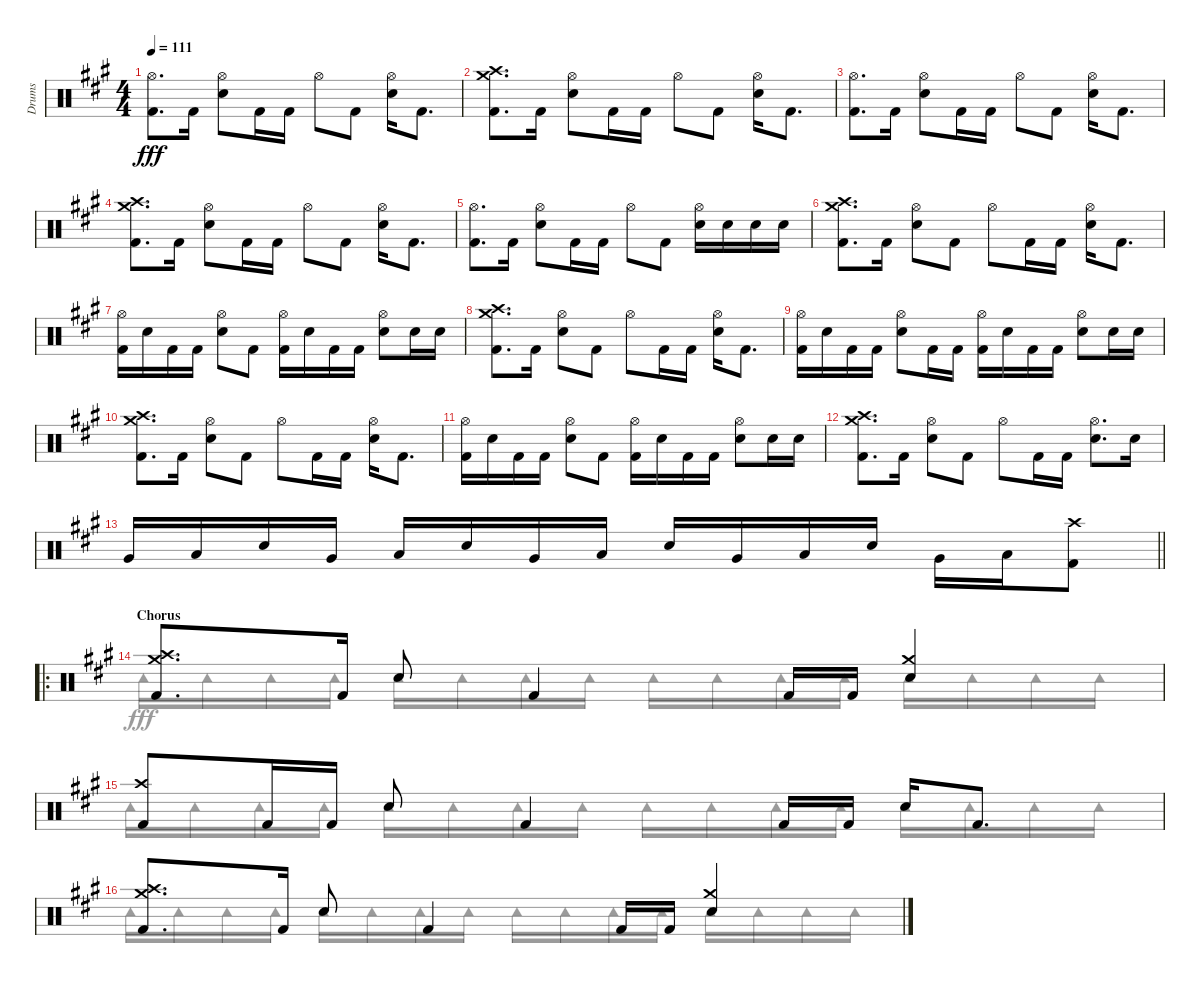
\track ("Drums" "Drums") {instrument percussion}
\staff {score}
\articulation defaults
\voice
\ts (4 4)
\tempo 111
\clef neutral
\ks a
("Hi-Hat (open)" "Kick (hit) 2").8{d dy fff} "Kick (hit) 2".16 ("Hi-Hat (open)" "Snare (hit) 2").8 "Kick (hit) 2".16 "Kick (hit) 2".16 "Hi-Hat (open)".8 "Kick (hit) 2".8 ("Hi-Hat (open)" "Snare (hit) 2").16 "Kick (hit) 2".8{d} |
("Crash medium (hit)" "Crash high (hit)" "Kick (hit) 2").8{d} "Kick (hit) 2".16 ("Hi-Hat (open)" "Snare (hit) 2").8 "Kick (hit) 2".16 "Kick (hit) 2".16 "Hi-Hat (open)".8 "Kick (hit) 2".8 ("Hi-Hat (open)" "Snare (hit) 2").16 "Kick (hit) 2".8{d} |
("Hi-Hat (open)" "Kick (hit) 2").8{d} "Kick (hit) 2".16 ("Hi-Hat (open)" "Snare (hit) 2").8 "Kick (hit) 2".16 "Kick (hit) 2".16 "Hi-Hat (open)".8 "Kick (hit) 2".8 ("Hi-Hat (open)" "Snare (hit) 2").16 "Kick (hit) 2".8{d} |
("Crash medium (hit)" "Crash high (hit)" "Kick (hit) 2").8{d} "Kick (hit) 2".16 ("Hi-Hat (open)" "Snare (hit) 2").8 "Kick (hit) 2".16 "Kick (hit) 2".16 "Hi-Hat (open)".8 "Kick (hit) 2".8 ("Hi-Hat (open)" "Snare (hit) 2").16 "Kick (hit) 2".8{d} |
("Hi-Hat (open)" "Kick (hit) 2").8{d} "Kick (hit) 2".16 ("Hi-Hat (open)" "Snare (hit) 2").8 "Kick (hit) 2".16 "Kick (hit) 2".16 "Hi-Hat (open)".8 "Kick (hit) 2".8 ("Hi-Hat (open)" "Snare (hit) 2").16 "Snare (hit) 2".16 "Snare (hit) 2".16 "Snare (hit) 2".16 |
("Crash medium (hit)" "Crash high (hit)" "Kick (hit) 2").8{d} "Kick (hit) 2".16 ("Hi-Hat (open)" "Snare (hit) 2").8 "Kick (hit) 2".8 "Hi-Hat (open)".8 "Kick (hit) 2".16 "Kick (hit) 2".16 ("Hi-Hat (open)" "Snare (hit) 2").16 "Kick (hit) 2".8{d} |
("Hi-Hat (open)" "Kick (hit) 2").16 "Snare (hit) 2".16 "Kick (hit) 2".16 "Kick (hit) 2".16 ("Hi-Hat (open)" "Snare (hit) 2").8 "Kick (hit) 2".8 ("Hi-Hat (open)" "Kick (hit) 2").16 "Snare (hit) 2".16 "Kick (hit) 2".16 "Kick (hit) 2".16 ("Hi-Hat (open)" "Snare (hit) 2").8 "Snare (hit) 2".16 "Snare (hit) 2".16 |
("Crash medium (hit)" "Crash high (hit)" "Kick (hit) 2").8{d} "Kick (hit) 2".16 ("Hi-Hat (open)" "Snare (hit) 2").8 "Kick (hit) 2".8 "Hi-Hat (open)".8 "Kick (hit) 2".16 "Kick (hit) 2".16 ("Hi-Hat (open)" "Snare (hit) 2").16 "Kick (hit) 2".8{d} |
("Hi-Hat (open)" "Kick (hit) 2").16 "Snare (hit) 2".16 "Kick (hit) 2".16 "Kick (hit) 2".16 ("Hi-Hat (open)" "Snare (hit) 2").8 "Kick (hit) 2".16 "Kick (hit) 2".16 ("Hi-Hat (open)" "Kick (hit) 2").16 "Snare (hit) 2".16 "Kick (hit) 2".16 "Kick (hit) 2".16 ("Hi-Hat (open)" "Snare (hit) 2").8 "Snare (hit) 2".16 "Snare (hit) 2".16 |
("Crash medium (hit)" "Crash high (hit)" "Kick (hit) 2").8{d} "Kick (hit) 2".16 ("Hi-Hat (open)" "Snare (hit) 2").8 "Kick (hit) 2".8 "Hi-Hat (open)".8 "Kick (hit) 2".16 "Kick (hit) 2".16 ("Hi-Hat (open)" "Snare (hit) 2").16 "Kick (hit) 2".8{d} |
("Hi-Hat (open)" "Kick (hit) 2").16 "Snare (hit) 2".16 "Kick (hit) 2".16 "Kick (hit) 2".16 ("Hi-Hat (open)" "Snare (hit) 2").8 "Kick (hit) 2".8 ("Hi-Hat (open)" "Kick (hit) 2").16 "Snare (hit) 2".16 "Kick (hit) 2".16 "Kick (hit) 2".16 ("Hi-Hat (open)" "Snare (hit) 2").8 "Snare (hit) 2".16 "Snare (hit) 2".16 |
("Crash medium (hit)" "Crash high (hit)" "Kick (hit) 2").8{d} "Kick (hit) 2".16 ("Hi-Hat (open)" "Snare (hit) 2").8 "Kick (hit) 2".8 "Hi-Hat (open)".8 "Kick (hit) 2".16 "Kick (hit) 2".16 ("Hi-Hat (open)" "Snare (hit) 2").8{d} "Snare (hit) 2".16 |
\barLineRight lightlight "Very Low Tom (hit)".16 "Low Floor Tom (hit)".16 "Snare (hit) 2".16 "Very Low Tom (hit)".16 "Low Floor Tom (hit)".16 "Snare (hit) 2".16 "Very Low Tom (hit)".16 "Low Floor Tom (hit)".16 "Snare (hit) 2".16 "Very Low Tom (hit)".16 "Low Floor Tom (hit)".16 "Snare (hit) 2".16 "Very Low Tom (hit)".16 "Low Floor Tom (hit)".16
("Crash high (hit)" "Kick (hit) 2").8 |
\ro
\section ("" "Chorus")
("Crash medium (hit)" "Crash high (hit)" "Kick (hit) 2").8{d} "Kick (hit) 2".16 "Snare (hit) 2".8 "Kick (hit) 2".4 "Kick (hit) 2".16 "Kick (hit) 2".16 ("Crash medium (hit)" "Snare (hit) 2").4 |
("Crash high (hit)" "Kick (hit) 2").8 "Kick (hit) 2".16 "Kick (hit) 2".16 "Snare (hit) 2".8 "Kick (hit) 2".4 "Kick (hit) 2".16 "Kick (hit) 2".16 "Snare (hit) 2".16 "Kick (hit) 2".8{d} |
("Crash medium (hit)" "Crash high (hit)" "Kick (hit) 2").8{d} "Kick (hit) 2".16 "Snare (hit) 2".8 "Kick (hit) 2".4 "Kick (hit) 2".16 "Kick (hit) 2".16 ("Crash medium (hit)" "Snare (hit) 2").4
\voice
\clef neutral
\ottava regular
\simile none
\ks a
|
|
|
|
|
|
|
|
|
|
|
|
\barLineRight lightlight
|
"Tambourine (hit)".16 "Tambourine (hit)".16 "Tambourine (hit)".16 "Tambourine (hit)".16 "Tambourine (hit)".16 "Tambourine (hit)".16 "Tambourine (hit)".16 "Tambourine (hit)".16 "Tambourine (hit)".16 "Tambourine (hit)".16 "Tambourine (hit)".16 "Tambourine (hit)".16 "Tambourine (hit)".16 "Tambourine (hit)".16 "Tambourine (hit)".16 "Tambourine (hit)".16 |
"Tambourine (hit)".16 "Tambourine (hit)".16 "Tambourine (hit)".16 "Tambourine (hit)".16 "Tambourine (hit)".16 "Tambourine (hit)".16 "Tambourine (hit)".16 "Tambourine (hit)".16 "Tambourine (hit)".16 "Tambourine (hit)".16 "Tambourine (hit)".16 "Tambourine (hit)".16 "Tambourine (hit)".16 "Tambourine (hit)".16 "Tambourine (hit)".16 "Tambourine (hit)".16 |
"Tambourine (hit)".16 "Tambourine (hit)".16 "Tambourine (hit)".16 "Tambourine (hit)".16 "Tambourine (hit)".16 "Tambourine (hit)".16 "Tambourine (hit)".16 "Tambourine (hit)".16 "Tambourine (hit)".16 "Tambourine (hit)".16 "Tambourine (hit)".16 "Tambourine (hit)".16 "Tambourine (hit)".16 "Tambourine (hit)".16 "Tambourine (hit)".16 "Tambourine (hit)".16
